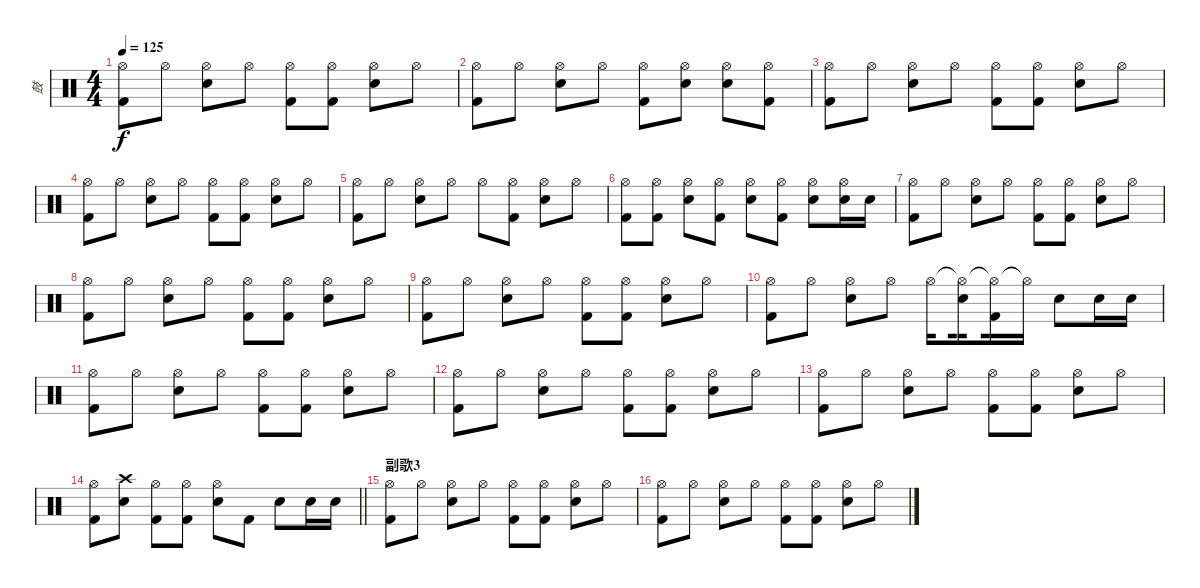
\track ("鼓" "鼓") {instrument percussion}
\staff {score}
\articulation defaults
\ts (4 4)
\tempo 125
\clef neutral
\ks c
("Hi-Hat (open)" "Kick (hit) 2").8{dy f} "Hi-Hat (open)".8 ("Hi-Hat (open)" "Snare (hit) 2").8 "Hi-Hat (open)".8 ("Hi-Hat (open)" "Kick (hit) 2").8 ("Hi-Hat (open)" "Kick (hit) 2").8 ("Hi-Hat (open)" "Snare (hit) 2").8 "Hi-Hat (open)".8 |
("Hi-Hat (open)" "Kick (hit) 2").8 "Hi-Hat (open)".8 ("Hi-Hat (open)" "Snare (hit) 2").8 "Hi-Hat (open)".8 ("Hi-Hat (open)" "Kick (hit) 2").8 ("Hi-Hat (open)" "Snare (hit) 2").8 ("Hi-Hat (open)" "Snare (hit) 2").8 ("Hi-Hat (open)" "Kick (hit) 2").8 |
("Hi-Hat (open)" "Kick (hit) 2").8 "Hi-Hat (open)".8 ("Hi-Hat (open)" "Snare (hit) 2").8 "Hi-Hat (open)".8 ("Hi-Hat (open)" "Kick (hit) 2").8 ("Hi-Hat (open)" "Kick (hit) 2").8 ("Hi-Hat (open)" "Snare (hit) 2").8 "Hi-Hat (open)".8 |
("Hi-Hat (open)" "Kick (hit) 2").8 "Hi-Hat (open)".8 ("Hi-Hat (open)" "Snare (hit) 2").8 "Hi-Hat (open)".8 ("Hi-Hat (open)" "Kick (hit) 2").8 ("Hi-Hat (open)" "Kick (hit) 2").8 ("Hi-Hat (open)" "Snare (hit) 2").8 "Hi-Hat (open)".8 |
("Hi-Hat (open)" "Kick (hit) 2").8 "Hi-Hat (open)".8 ("Hi-Hat (open)" "Snare (hit) 2").8 "Hi-Hat (open)".8 "Hi-Hat (open)".8 ("Hi-Hat (open)" "Kick (hit) 2").8 ("Hi-Hat (open)" "Snare (hit) 2").8 "Hi-Hat (open)".8 |
("Hi-Hat (open)" "Kick (hit) 2").8 ("Hi-Hat (open)" "Kick (hit) 2").8 ("Hi-Hat (open)" "Snare (hit) 2").8 ("Hi-Hat (open)" "Kick (hit) 2").8 ("Hi-Hat (open)" "Snare (hit) 2").8 ("Hi-Hat (open)" "Kick (hit) 2").8 ("Hi-Hat (open)" "Snare (hit) 2").8 ("Hi-Hat (open)" "Snare (hit) 2").16 "Snare (hit) 2".16 |
("Hi-Hat (open)" "Kick (hit) 2").8 "Hi-Hat (open)".8 ("Hi-Hat (open)" "Snare (hit) 2").8 "Hi-Hat (open)".8 ("Hi-Hat (open)" "Kick (hit) 2").8 ("Hi-Hat (open)" "Kick (hit) 2").8 ("Hi-Hat (open)" "Snare (hit) 2").8 "Hi-Hat (open)".8 |
("Hi-Hat (open)" "Kick (hit) 2").8 "Hi-Hat (open)".8 ("Hi-Hat (open)" "Snare (hit) 2").8 "Hi-Hat (open)".8 ("Hi-Hat (open)" "Kick (hit) 2").8 ("Hi-Hat (open)" "Kick (hit) 2").8 ("Hi-Hat (open)" "Snare (hit) 2").8 "Hi-Hat (open)".8 |
("Hi-Hat (open)" "Kick (hit) 2").8 "Hi-Hat (open)".8 ("Hi-Hat (open)" "Snare (hit) 2").8 "Hi-Hat (open)".8 ("Hi-Hat (open)" "Kick (hit) 2").8 ("Hi-Hat (open)" "Kick (hit) 2").8 ("Hi-Hat (open)" "Snare (hit) 2").8 "Hi-Hat (open)".8 |
("Hi-Hat (open)" "Kick (hit) 2").8 "Hi-Hat (open)".8 ("Hi-Hat (open)" "Snare (hit) 2").8 "Hi-Hat (open)".8 "Hi-Hat (open)".16{beam splitsecondary} ("Hi-Hat (open)"{t} "Snare (hit) 2").16{beam splitsecondary} ("Hi-Hat (open)"{t} "Kick (hit) 2").16 "Hi-Hat (open)"{t}.16 "Snare (hit) 2".8 "Snare (hit) 2".16 "Snare (hit) 2".16 |
("Hi-Hat (open)" "Kick (hit) 2").8 "Hi-Hat (open)".8 ("Hi-Hat (open)" "Snare (hit) 2").8 "Hi-Hat (open)".8 ("Hi-Hat (open)" "Kick (hit) 2").8 ("Hi-Hat (open)" "Kick (hit) 2").8 ("Hi-Hat (open)" "Snare (hit) 2").8 "Hi-Hat (open)".8 |
("Hi-Hat (open)" "Kick (hit) 2").8 "Hi-Hat (open)".8 ("Hi-Hat (open)" "Snare (hit) 2").8 "Hi-Hat (open)".8 ("Hi-Hat (open)" "Kick (hit) 2").8 ("Hi-Hat (open)" "Kick (hit) 2").8 ("Hi-Hat (open)" "Snare (hit) 2").8 "Hi-Hat (open)".8 |
("Hi-Hat (open)" "Kick (hit) 2").8 "Hi-Hat (open)".8 ("Hi-Hat (open)" "Snare (hit) 2").8 "Hi-Hat (open)".8 ("Hi-Hat (open)" "Kick (hit) 2").8 ("Hi-Hat (open)" "Kick (hit) 2").8 ("Hi-Hat (open)" "Snare (hit) 2").8 "Hi-Hat (open)".8 |
\barLineRight lightlight
("Hi-Hat (open)" "Kick (hit) 2").8 ("Crash high (hit)" "Snare (hit) 2").8 ("Hi-Hat (open)" "Kick (hit) 2").8 ("Hi-Hat (open)" "Kick (hit) 2").8 ("Hi-Hat (open)" "Snare (hit) 2").8 "Kick (hit) 2".8 "Snare (hit) 2".8 "Snare (hit) 2".16 "Snare (hit) 2".16 |
\section ("" "副歌3")
("Hi-Hat (open)" "Kick (hit) 2").8 "Hi-Hat (open)".8 ("Hi-Hat (open)" "Snare (hit) 2").8 "Hi-Hat (open)".8 ("Hi-Hat (open)" "Kick (hit) 2").8 ("Hi-Hat (open)" "Kick (hit) 2").8 ("Hi-Hat (open)" "Snare (hit) 2").8 "Hi-Hat (open)".8 |
("Hi-Hat (open)" "Kick (hit) 2").8 "Hi-Hat (open)".8 ("Hi-Hat (open)" "Snare (hit) 2").8 "Hi-Hat (open)".8 ("Hi-Hat (open)" "Kick (hit) 2").8 ("Hi-Hat (open)" "Kick (hit) 2").8 ("Hi-Hat (open)" "Snare (hit) 2").8 "Hi-Hat (open)".8
